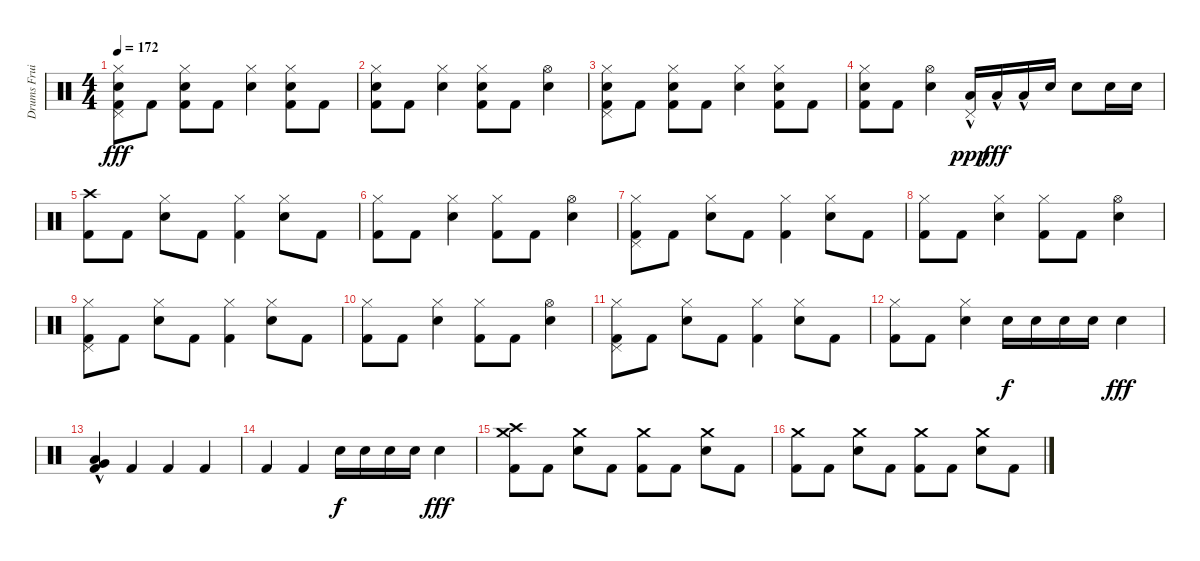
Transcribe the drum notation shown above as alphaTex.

\track ("Drums Fruity Lexia" "Drums Frui") {instrument percussion}
\staff {score}
\articulation defaults
\ts (4 4)
\tempo 172
\clef neutral
\ks c
("Hi-Hat (closed)" "Electric Snare (hit)" "Pedal Hi-Hat (hit)" "Kick (hit) 2").8{dy fff} "Kick (hit) 2".8 ("Hi-Hat (closed)" "Electric Snare (hit)" "Kick (hit) 2").8 "Kick (hit) 2".8 ("Hi-Hat (closed)" "Electric Snare (hit)").4 ("Hi-Hat (closed)" "Electric Snare (hit)" "Kick (hit) 2").8 "Kick (hit) 2".8 |
("Hi-Hat (closed)" "Electric Snare (hit)" "Kick (hit) 2").8 "Kick (hit) 2".8 ("Hi-Hat (closed)" "Electric Snare (hit)").4 ("Hi-Hat (closed)" "Electric Snare (hit)" "Kick (hit) 2").8 "Kick (hit) 2".8 ("Hi-Hat (open)" "Electric Snare (hit)").4 |
("Hi-Hat (closed)" "Electric Snare (hit)" "Pedal Hi-Hat (hit)" "Kick (hit) 2").8 "Kick (hit) 2".8 ("Hi-Hat (closed)" "Electric Snare (hit)" "Kick (hit) 2").8 "Kick (hit) 2".8 ("Hi-Hat (closed)" "Electric Snare (hit)").4 ("Hi-Hat (closed)" "Electric Snare (hit)" "Kick (hit) 2").8 "Kick (hit) 2".8 |
("Hi-Hat (closed)" "Electric Snare (hit)" "Kick (hit) 2").8 "Kick (hit) 2".8 ("Hi-Hat (open)" "Electric Snare (hit)").4 ("Low Tom (hit)"{hac} "Pedal Hi-Hat (hit)").16{dy ppp} "Low Tom (hit)"{hac}.16{dy fff} "Low Tom (hit)"{hac}.16 "Electric Snare (hit)".16 "Electric Snare (hit)".8 "Electric Snare (hit)".16 "Electric Snare (hit)".16 |
("Crash high (hit)" "Kick (hit) 2").8 "Kick (hit) 2".8 ("Hi-Hat (closed)" "Electric Snare (hit)").8 "Kick (hit) 2".8 ("Hi-Hat (closed)" "Kick (hit) 2").4 ("Hi-Hat (closed)" "Electric Snare (hit)").8 "Kick (hit) 2".8 |
("Hi-Hat (closed)" "Kick (hit) 2").8 "Kick (hit) 2".8 ("Hi-Hat (closed)" "Electric Snare (hit)").4 ("Hi-Hat (closed)" "Kick (hit) 2").8 "Kick (hit) 2".8 ("Hi-Hat (open)" "Electric Snare (hit)").4 |
("Hi-Hat (closed)" "Pedal Hi-Hat (hit)" "Kick (hit) 2").8 "Kick (hit) 2".8 ("Hi-Hat (closed)" "Electric Snare (hit)").8 "Kick (hit) 2".8 ("Hi-Hat (closed)" "Kick (hit) 2").4 ("Hi-Hat (closed)" "Electric Snare (hit)").8 "Kick (hit) 2".8 |
("Hi-Hat (closed)" "Kick (hit) 2").8 "Kick (hit) 2".8 ("Hi-Hat (closed)" "Electric Snare (hit)").4 ("Hi-Hat (closed)" "Kick (hit) 2").8 "Kick (hit) 2".8 ("Hi-Hat (open)" "Electric Snare (hit)").4 |
("Hi-Hat (closed)" "Pedal Hi-Hat (hit)" "Kick (hit) 2").8 "Kick (hit) 2".8 ("Hi-Hat (closed)" "Electric Snare (hit)").8 "Kick (hit) 2".8 ("Hi-Hat (closed)" "Kick (hit) 2").4 ("Hi-Hat (closed)" "Electric Snare (hit)").8 "Kick (hit) 2".8 |
("Hi-Hat (closed)" "Kick (hit) 2").8 "Kick (hit) 2".8 ("Hi-Hat (closed)" "Electric Snare (hit)").4 ("Hi-Hat (closed)" "Kick (hit) 2").8 "Kick (hit) 2".8 ("Hi-Hat (open)" "Electric Snare (hit)").4 |
("Hi-Hat (closed)" "Pedal Hi-Hat (hit)" "Kick (hit) 2").8 "Kick (hit) 2".8 ("Hi-Hat (closed)" "Electric Snare (hit)").8 "Kick (hit) 2".8 ("Hi-Hat (closed)" "Kick (hit) 2").4 ("Hi-Hat (closed)" "Electric Snare (hit)").8 "Kick (hit) 2".8 |
("Hi-Hat (closed)" "Kick (hit) 2").8 "Kick (hit) 2".8 ("Hi-Hat (closed)" "Electric Snare (hit)").4 "Electric Snare (hit)".16{dy f} "Electric Snare (hit)".16 "Electric Snare (hit)".16 "Electric Snare (hit)".16 "Electric Snare (hit)".4{dy fff} |
("Low Tom (hit)"{hac} "Very Low Tom (hit)"{hac} "Kick (hit) 2").4 "Kick (hit) 2".4 "Kick (hit) 2".4 "Kick (hit) 2".4 |
"Kick (hit) 2".4 "Kick (hit) 2".4 "Electric Snare (hit)".16{dy f} "Electric Snare (hit)".16 "Electric Snare (hit)".16 "Electric Snare (hit)".16 "Electric Snare (hit)".4{dy fff} |
("Crash high (hit)" "Crash medium (hit)" "Kick (hit) 2").8 "Kick (hit) 2".8 ("Crash medium (hit)" "Electric Snare (hit)").8 "Kick (hit) 2".8 ("Crash medium (hit)" "Kick (hit) 2").8 "Kick (hit) 2".8 ("Crash medium (hit)" "Electric Snare (hit)").8 "Kick (hit) 2".8 |
("Crash medium (hit)" "Kick (hit) 2").8 "Kick (hit) 2".8 ("Crash medium (hit)" "Electric Snare (hit)").8 "Kick (hit) 2".8 ("Crash medium (hit)" "Kick (hit) 2").8 "Kick (hit) 2".8 ("Crash medium (hit)" "Electric Snare (hit)").8 "Kick (hit) 2".8
